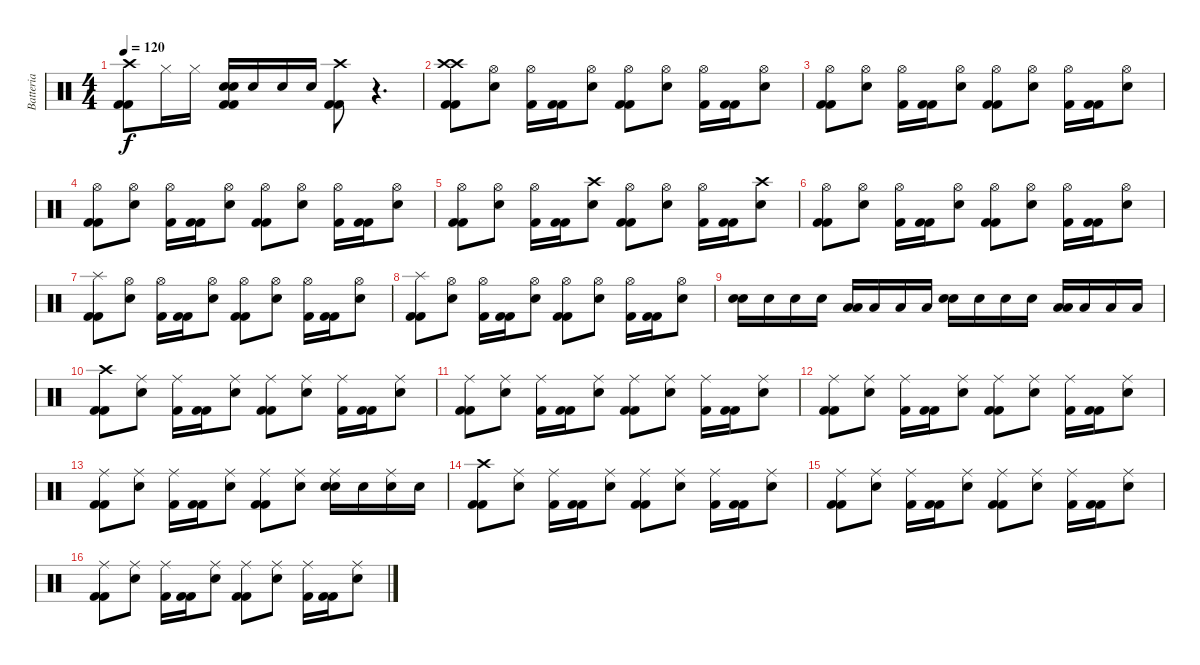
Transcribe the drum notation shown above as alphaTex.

\track ("Batteria" "Batteria") {instrument percussion}
\staff {score}
\articulation defaults
\ts (4 4)
\tempo 120
\clef neutral
\ks c
("Kick (hit) 2" "Kick (hit) 2" "Crash high (hit)").8{dy f} "Hi-Hat (closed)".16 "Hi-Hat (closed)".16 ("Kick (hit) 2" "Kick (hit) 2" "Snare (hit) 2" "Snare (hit) 2").16 "Snare (hit) 2".16 "Snare (hit) 2".16 "Snare (hit) 2".16 ("Crash high (hit)" "Kick (hit) 2" "Kick (hit) 2").8 r.4{d} |
("Crash high (hit)" "Kick (hit) 2" "Kick (hit) 2" "Crash high (hit)").8 ("Snare (hit) 2" "Hi-Hat (open)").8 ("Kick (hit) 2" "Hi-Hat (open)").16 ("Kick (hit) 2" "Kick (hit) 2").16 ("Snare (hit) 2" "Hi-Hat (open)").8 ("Kick (hit) 2" "Kick (hit) 2" "Hi-Hat (open)").8 ("Snare (hit) 2" "Hi-Hat (open)").8 ("Kick (hit) 2" "Hi-Hat (open)").16 ("Kick (hit) 2" "Kick (hit) 2").16 ("Snare (hit) 2" "Hi-Hat (open)").8 |
("Hi-Hat (open)" "Kick (hit) 2" "Kick (hit) 2").8 ("Snare (hit) 2" "Hi-Hat (open)").8 ("Kick (hit) 2" "Hi-Hat (open)").16 ("Kick (hit) 2" "Kick (hit) 2").16 ("Snare (hit) 2" "Hi-Hat (open)").8 ("Hi-Hat (open)" "Kick (hit) 2" "Kick (hit) 2").8 ("Snare (hit) 2" "Hi-Hat (open)").8 ("Kick (hit) 2" "Hi-Hat (open)").16 ("Kick (hit) 2" "Kick (hit) 2").16 ("Snare (hit) 2" "Hi-Hat (open)").8 |
("Hi-Hat (open)" "Kick (hit) 2" "Kick (hit) 2").8 ("Snare (hit) 2" "Hi-Hat (open)").8 ("Kick (hit) 2" "Hi-Hat (open)").16 ("Kick (hit) 2" "Kick (hit) 2").16 ("Snare (hit) 2" "Hi-Hat (open)").8 ("Hi-Hat (open)" "Kick (hit) 2" "Kick (hit) 2").8 ("Snare (hit) 2" "Hi-Hat (open)").8 ("Kick (hit) 2" "Hi-Hat (open)").16 ("Kick (hit) 2" "Kick (hit) 2").16 ("Snare (hit) 2" "Hi-Hat (open)").8 |
("Kick (hit) 2" "Kick (hit) 2" "Hi-Hat (open)").8 ("Snare (hit) 2" "Hi-Hat (open)").8 ("Kick (hit) 2" "Hi-Hat (open)").16 ("Kick (hit) 2" "Kick (hit) 2").16 ("Crash high (hit)" "Snare (hit) 2").8 ("Hi-Hat (open)" "Kick (hit) 2" "Kick (hit) 2").8 ("Snare (hit) 2" "Hi-Hat (open)").8 ("Kick (hit) 2" "Hi-Hat (open)").16 ("Kick (hit) 2" "Kick (hit) 2").16 ("Crash high (hit)" "Snare (hit) 2").8 |
("Kick (hit) 2" "Kick (hit) 2" "Hi-Hat (open)").8 ("Snare (hit) 2" "Hi-Hat (open)").8 ("Kick (hit) 2" "Hi-Hat (open)").16 ("Kick (hit) 2" "Kick (hit) 2").16 ("Snare (hit) 2" "Hi-Hat (open)").8 ("Hi-Hat (open)" "Kick (hit) 2" "Kick (hit) 2").8 ("Snare (hit) 2" "Hi-Hat (open)").8 ("Kick (hit) 2" "Hi-Hat (open)").16 ("Kick (hit) 2" "Kick (hit) 2").16 ("Snare (hit) 2" "Hi-Hat (open)").8 |
("Kick (hit) 2" "Kick (hit) 2" "Splash (hit)").8 ("Snare (hit) 2" "Hi-Hat (open)").8 ("Kick (hit) 2" "Hi-Hat (open)").16 ("Kick (hit) 2" "Kick (hit) 2").16 ("Snare (hit) 2" "Hi-Hat (open)").8 ("Hi-Hat (open)" "Kick (hit) 2" "Kick (hit) 2").8 ("Snare (hit) 2" "Hi-Hat (open)").8 ("Kick (hit) 2" "Hi-Hat (open)").16 ("Kick (hit) 2" "Kick (hit) 2").16 ("Snare (hit) 2" "Hi-Hat (open)").8 |
("Kick (hit) 2" "Kick (hit) 2" "Splash (hit)").8 ("Snare (hit) 2" "Hi-Hat (open)").8 ("Kick (hit) 2" "Hi-Hat (open)").16 ("Kick (hit) 2" "Kick (hit) 2").16 ("Snare (hit) 2" "Hi-Hat (open)").8 ("Hi-Hat (open)" "Kick (hit) 2" "Kick (hit) 2").8 ("Snare (hit) 2" "Hi-Hat (open)").8 ("Kick (hit) 2" "Hi-Hat (open)").16 ("Kick (hit) 2" "Kick (hit) 2").16 ("Snare (hit) 2" "Hi-Hat (open)").8 |
("Snare (hit) 2" "Snare (hit) 2").16 "Snare (hit) 2".16 "Snare (hit) 2".16 "Snare (hit) 2".16 ("Low Tom (hit)" "Low Tom (hit)").16 "Low Tom (hit)".16 "Low Tom (hit)".16 "Low Tom (hit)".16 ("Snare (hit) 2" "Snare (hit) 2").16 "Snare (hit) 2".16 "Snare (hit) 2".16 "Snare (hit) 2".16 ("Low Floor Tom (hit)" "Low Floor Tom (hit)").16 "Low Floor Tom (hit)".16 "Low Floor Tom (hit)".16 "Low Floor Tom (hit)".16 |
("Kick (hit) 2" "Kick (hit) 2" "Crash high (hit)").8 ("Snare (hit) 2" "Ride (middle)").8 ("Kick (hit) 2" "Ride (middle)").16 ("Kick (hit) 2" "Kick (hit) 2").16 ("Snare (hit) 2" "Ride (middle)").8 ("Kick (hit) 2" "Kick (hit) 2" "Ride (middle)").8 ("Snare (hit) 2" "Ride (middle)").8 ("Kick (hit) 2" "Ride (middle)").16 ("Kick (hit) 2" "Kick (hit) 2").16 ("Snare (hit) 2" "Ride (middle)").8 |
("Kick (hit) 2" "Kick (hit) 2" "Ride (middle)").8 ("Snare (hit) 2" "Ride (middle)").8 ("Kick (hit) 2" "Ride (middle)").16 ("Kick (hit) 2" "Kick (hit) 2").16 ("Snare (hit) 2" "Ride (middle)").8 ("Kick (hit) 2" "Kick (hit) 2" "Ride (middle)").8 ("Snare (hit) 2" "Ride (middle)").8 ("Kick (hit) 2" "Ride (middle)").16 ("Kick (hit) 2" "Kick (hit) 2").16 ("Snare (hit) 2" "Ride (middle)").8 |
("Kick (hit) 2" "Kick (hit) 2" "Ride (middle)").8 ("Snare (hit) 2" "Ride (middle)").8 ("Kick (hit) 2" "Ride (middle)").16 ("Kick (hit) 2" "Kick (hit) 2").16 ("Snare (hit) 2" "Ride (middle)").8 ("Kick (hit) 2" "Kick (hit) 2" "Ride (middle)").8 ("Snare (hit) 2" "Ride (middle)").8 ("Kick (hit) 2" "Ride (middle)").16 ("Kick (hit) 2" "Kick (hit) 2").16 ("Snare (hit) 2" "Ride (middle)").8 |
("Ride (middle)" "Kick (hit) 2" "Kick (hit) 2").8 ("Ride (middle)" "Snare (hit) 2").8 ("Ride (middle)" "Kick (hit) 2").16 ("Kick (hit) 2" "Kick (hit) 2").16 ("Ride (middle)" "Snare (hit) 2").8 ("Ride (middle)" "Kick (hit) 2" "Kick (hit) 2").8 ("Ride (middle)" "Snare (hit) 2").8 ("Ride (middle)" "Snare (hit) 2" "Snare (hit) 2").16 "Snare (hit) 2".16 ("Ride (middle)" "Snare (hit) 2").16 "Snare (hit) 2".16 |
("Kick (hit) 2" "Kick (hit) 2" "Crash high (hit)").8 ("Snare (hit) 2" "Ride (middle)").8 ("Kick (hit) 2" "Ride (middle)").16 ("Kick (hit) 2" "Kick (hit) 2").16 ("Snare (hit) 2" "Ride (middle)").8 ("Kick (hit) 2" "Kick (hit) 2" "Ride (middle)").8 ("Snare (hit) 2" "Ride (middle)").8 ("Kick (hit) 2" "Ride (middle)").16 ("Kick (hit) 2" "Kick (hit) 2").16 ("Snare (hit) 2" "Ride (middle)").8 |
("Kick (hit) 2" "Kick (hit) 2" "Ride (middle)").8 ("Snare (hit) 2" "Ride (middle)").8 ("Kick (hit) 2" "Ride (middle)").16 ("Kick (hit) 2" "Kick (hit) 2").16 ("Snare (hit) 2" "Ride (middle)").8 ("Kick (hit) 2" "Kick (hit) 2" "Ride (middle)").8 ("Snare (hit) 2" "Ride (middle)").8 ("Kick (hit) 2" "Ride (middle)").16 ("Kick (hit) 2" "Kick (hit) 2").16 ("Snare (hit) 2" "Ride (middle)").8 |
("Kick (hit) 2" "Kick (hit) 2" "Ride (middle)").8 ("Snare (hit) 2" "Ride (middle)").8 ("Kick (hit) 2" "Ride (middle)").16 ("Kick (hit) 2" "Kick (hit) 2").16 ("Snare (hit) 2" "Ride (middle)").8 ("Kick (hit) 2" "Kick (hit) 2" "Ride (middle)").8 ("Snare (hit) 2" "Ride (middle)").8 ("Kick (hit) 2" "Ride (middle)").16 ("Kick (hit) 2" "Kick (hit) 2").16 ("Snare (hit) 2" "Ride (middle)").8
